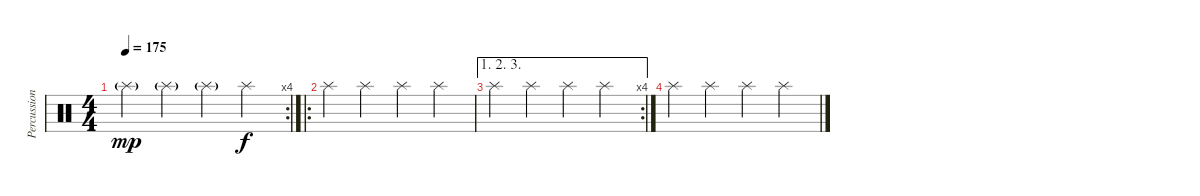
\track ("Percussion" "Percussion") {instrument percussion}
\staff {score}
\articulation defaults
\rc 4
\ts (4 4)
\tempo 175
\clef neutral
\ks c "Splash (hit)"{g}.4{dy mp} "Splash (hit)"{g}.4 "Splash (hit)"{g}.4 "Splash (hit)".4{dy f}
|
\ro "Splash (hit)".4 "Splash (hit)".4 "Splash (hit)".4 "Splash (hit)".4
|
\ae (1 2 3)
\rc 4 "Splash (hit)".4 "Splash (hit)".4 "Splash (hit)".4 "Splash (hit)".4
|
"Splash (hit)".4 "Splash (hit)".4 "Splash (hit)".4 "Splash (hit)".4
